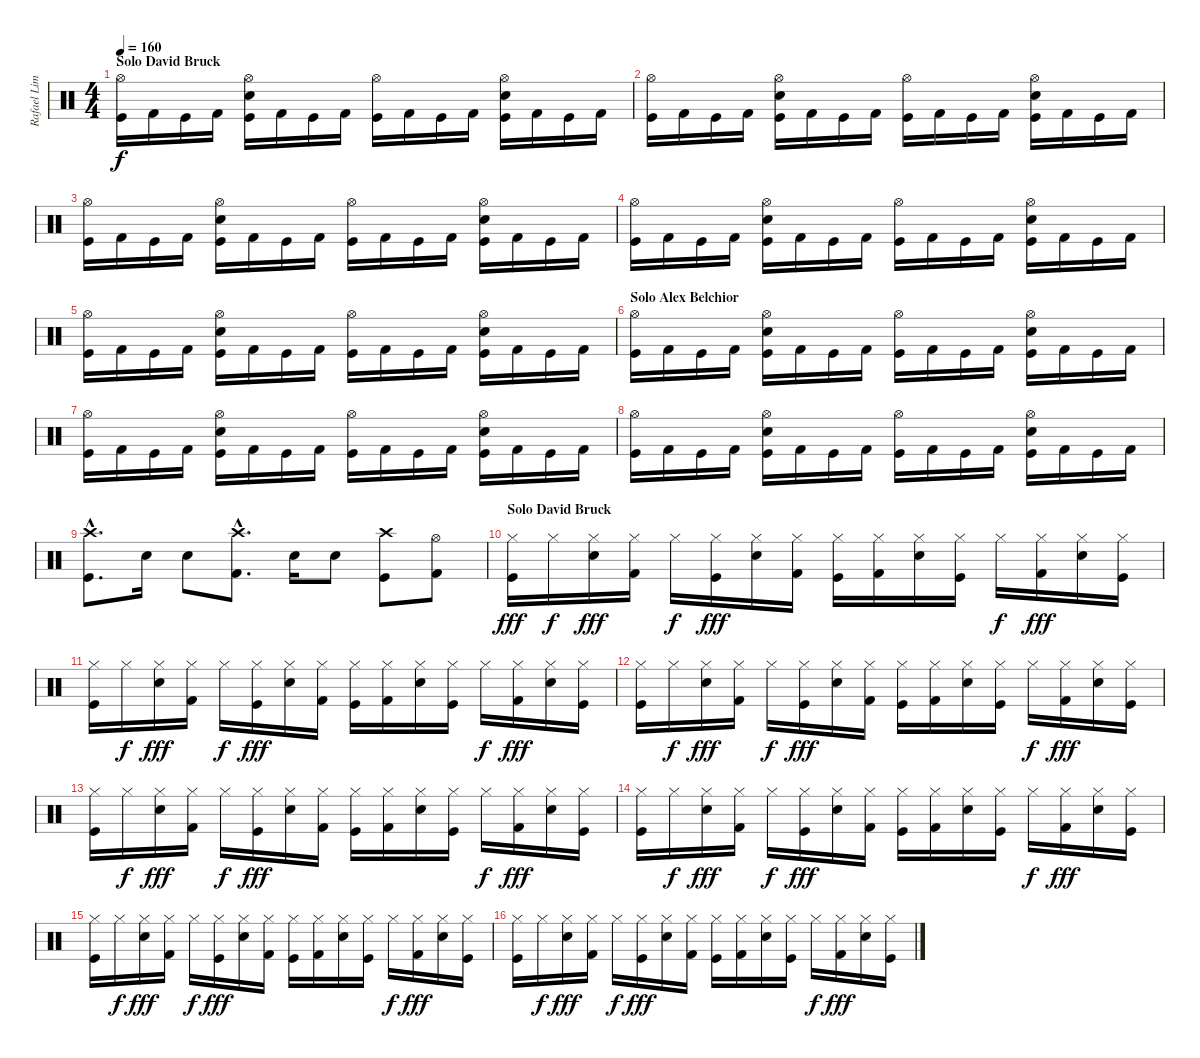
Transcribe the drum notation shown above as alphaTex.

\track ("Rafael Lima" "Rafael Lim") {instrument percussion}
\staff {score}
\articulation defaults
\ts (4 4)
\section ("" "Solo David Bruck")
\tempo 160
\clef neutral
\ks c
("Hi-Hat (open)" "Kick (hit)").16{dy f} "Kick (hit) 2".16 "Kick (hit)".16 "Kick (hit) 2".16 ("Hi-Hat (open)" "Electric Snare (hit)" "Kick (hit)").16 "Kick (hit) 2".16 "Kick (hit)".16 "Kick (hit) 2".16 ("Hi-Hat (open)" "Kick (hit)").16 "Kick (hit) 2".16 "Kick (hit)".16 "Kick (hit) 2".16 ("Hi-Hat (open)" "Electric Snare (hit)" "Kick (hit)").16 "Kick (hit) 2".16 "Kick (hit)".16 "Kick (hit) 2".16 |
("Hi-Hat (open)" "Kick (hit)").16 "Kick (hit) 2".16 "Kick (hit)".16 "Kick (hit) 2".16 ("Hi-Hat (open)" "Electric Snare (hit)" "Kick (hit)").16 "Kick (hit) 2".16 "Kick (hit)".16 "Kick (hit) 2".16 ("Hi-Hat (open)" "Kick (hit)").16 "Kick (hit) 2".16 "Kick (hit)".16 "Kick (hit) 2".16 ("Hi-Hat (open)" "Electric Snare (hit)" "Kick (hit)").16 "Kick (hit) 2".16 "Kick (hit)".16 "Kick (hit) 2".16 |
("Hi-Hat (open)" "Kick (hit)").16 "Kick (hit) 2".16 "Kick (hit)".16 "Kick (hit) 2".16 ("Hi-Hat (open)" "Electric Snare (hit)" "Kick (hit)").16 "Kick (hit) 2".16 "Kick (hit)".16 "Kick (hit) 2".16 ("Hi-Hat (open)" "Kick (hit)").16 "Kick (hit) 2".16 "Kick (hit)".16 "Kick (hit) 2".16 ("Hi-Hat (open)" "Electric Snare (hit)" "Kick (hit)").16 "Kick (hit) 2".16 "Kick (hit)".16 "Kick (hit) 2".16 |
("Hi-Hat (open)" "Kick (hit)").16 "Kick (hit) 2".16 "Kick (hit)".16 "Kick (hit) 2".16 ("Hi-Hat (open)" "Electric Snare (hit)" "Kick (hit)").16 "Kick (hit) 2".16 "Kick (hit)".16 "Kick (hit) 2".16 ("Hi-Hat (open)" "Kick (hit)").16 "Kick (hit) 2".16 "Kick (hit)".16 "Kick (hit) 2".16 ("Hi-Hat (open)" "Electric Snare (hit)" "Kick (hit)").16 "Kick (hit) 2".16 "Kick (hit)".16 "Kick (hit) 2".16 |
("Hi-Hat (open)" "Kick (hit)").16 "Kick (hit) 2".16 "Kick (hit)".16 "Kick (hit) 2".16 ("Hi-Hat (open)" "Electric Snare (hit)" "Kick (hit)").16 "Kick (hit) 2".16 "Kick (hit)".16 "Kick (hit) 2".16 ("Hi-Hat (open)" "Kick (hit)").16 "Kick (hit) 2".16 "Kick (hit)".16 "Kick (hit) 2".16 ("Hi-Hat (open)" "Electric Snare (hit)" "Kick (hit)").16 "Kick (hit) 2".16 "Kick (hit)".16 "Kick (hit) 2".16 |
\section ("" "Solo Alex Belchior")
("Hi-Hat (open)" "Kick (hit)").16 "Kick (hit) 2".16 "Kick (hit)".16 "Kick (hit) 2".16 ("Hi-Hat (open)" "Electric Snare (hit)" "Kick (hit)").16 "Kick (hit) 2".16 "Kick (hit)".16 "Kick (hit) 2".16 ("Hi-Hat (open)" "Kick (hit)").16 "Kick (hit) 2".16 "Kick (hit)".16 "Kick (hit) 2".16 ("Hi-Hat (open)" "Electric Snare (hit)" "Kick (hit)").16 "Kick (hit) 2".16 "Kick (hit)".16 "Kick (hit) 2".16 |
("Hi-Hat (open)" "Kick (hit)").16 "Kick (hit) 2".16 "Kick (hit)".16 "Kick (hit) 2".16 ("Hi-Hat (open)" "Electric Snare (hit)" "Kick (hit)").16 "Kick (hit) 2".16 "Kick (hit)".16 "Kick (hit) 2".16 ("Hi-Hat (open)" "Kick (hit)").16 "Kick (hit) 2".16 "Kick (hit)".16 "Kick (hit) 2".16 ("Hi-Hat (open)" "Electric Snare (hit)" "Kick (hit)").16 "Kick (hit) 2".16 "Kick (hit)".16 "Kick (hit) 2".16 |
("Hi-Hat (open)" "Kick (hit)").16 "Kick (hit) 2".16 "Kick (hit)".16 "Kick (hit) 2".16 ("Hi-Hat (open)" "Electric Snare (hit)" "Kick (hit)").16 "Kick (hit) 2".16 "Kick (hit)".16 "Kick (hit) 2".16 ("Hi-Hat (open)" "Kick (hit)").16 "Kick (hit) 2".16 "Kick (hit)".16 "Kick (hit) 2".16 ("Hi-Hat (open)" "Electric Snare (hit)" "Kick (hit)").16 "Kick (hit) 2".16 "Kick (hit)".16 "Kick (hit) 2".16 |
("Crash high (hit)"{hac} "Kick (hit)"{hac}).8{d} "Electric Snare (hit)".16 "Electric Snare (hit)".8 ("Crash high (hit)"{hac} "Kick (hit) 2"{hac}).8{d} "Electric Snare (hit)".16 "Electric Snare (hit)".8 ("Crash high (hit)" "Kick (hit)").8 ("Hi-Hat (open)" "Kick (hit) 2").8 |
\section ("" "Solo David Bruck")
("Hi-Hat (closed)" "Kick (hit)").16{dy fff} "Hi-Hat (closed)".16{dy f} ("Hi-Hat (closed)" "Electric Snare (hit)").16{dy fff} ("Hi-Hat (closed)" "Kick (hit) 2").16 "Hi-Hat (closed)".16{dy f} ("Hi-Hat (closed)" "Kick (hit)").16{dy fff} ("Hi-Hat (closed)" "Electric Snare (hit)").16 ("Hi-Hat (closed)" "Kick (hit) 2").16 ("Hi-Hat (closed)" "Kick (hit)").16 ("Hi-Hat (closed)" "Kick (hit) 2").16 ("Hi-Hat (closed)" "Electric Snare (hit)").16 ("Hi-Hat (closed)" "Kick (hit)").16 "Hi-Hat (closed)".16{dy f} ("Hi-Hat (closed)" "Kick (hit) 2").16{dy fff} ("Hi-Hat (closed)" "Electric Snare (hit)").16 ("Hi-Hat (closed)" "Kick (hit)").16 |
("Hi-Hat (closed)" "Kick (hit)").16 "Hi-Hat (closed)".16{dy f} ("Hi-Hat (closed)" "Electric Snare (hit)").16{dy fff} ("Hi-Hat (closed)" "Kick (hit) 2").16 "Hi-Hat (closed)".16{dy f} ("Hi-Hat (closed)" "Kick (hit)").16{dy fff} ("Hi-Hat (closed)" "Electric Snare (hit)").16 ("Hi-Hat (closed)" "Kick (hit) 2").16 ("Hi-Hat (closed)" "Kick (hit)").16 ("Hi-Hat (closed)" "Kick (hit) 2").16 ("Hi-Hat (closed)" "Electric Snare (hit)").16 ("Hi-Hat (closed)" "Kick (hit)").16 "Hi-Hat (closed)".16{dy f} ("Hi-Hat (closed)" "Kick (hit) 2").16{dy fff} ("Hi-Hat (closed)" "Electric Snare (hit)").16 ("Hi-Hat (closed)" "Kick (hit)").16 |
("Hi-Hat (closed)" "Kick (hit)").16 "Hi-Hat (closed)".16{dy f} ("Hi-Hat (closed)" "Electric Snare (hit)").16{dy fff} ("Hi-Hat (closed)" "Kick (hit) 2").16 "Hi-Hat (closed)".16{dy f} ("Hi-Hat (closed)" "Kick (hit)").16{dy fff} ("Hi-Hat (closed)" "Electric Snare (hit)").16 ("Hi-Hat (closed)" "Kick (hit) 2").16 ("Hi-Hat (closed)" "Kick (hit)").16 ("Hi-Hat (closed)" "Kick (hit) 2").16 ("Hi-Hat (closed)" "Electric Snare (hit)").16 ("Hi-Hat (closed)" "Kick (hit)").16 "Hi-Hat (closed)".16{dy f} ("Hi-Hat (closed)" "Kick (hit) 2").16{dy fff} ("Hi-Hat (closed)" "Electric Snare (hit)").16 ("Hi-Hat (closed)" "Kick (hit)").16 |
("Hi-Hat (closed)" "Kick (hit)").16 "Hi-Hat (closed)".16{dy f} ("Hi-Hat (closed)" "Electric Snare (hit)").16{dy fff} ("Hi-Hat (closed)" "Kick (hit) 2").16 "Hi-Hat (closed)".16{dy f} ("Hi-Hat (closed)" "Kick (hit)").16{dy fff} ("Hi-Hat (closed)" "Electric Snare (hit)").16 ("Hi-Hat (closed)" "Kick (hit) 2").16 ("Hi-Hat (closed)" "Kick (hit)").16 ("Hi-Hat (closed)" "Kick (hit) 2").16 ("Hi-Hat (closed)" "Electric Snare (hit)").16 ("Hi-Hat (closed)" "Kick (hit)").16 "Hi-Hat (closed)".16{dy f} ("Hi-Hat (closed)" "Kick (hit) 2").16{dy fff} ("Hi-Hat (closed)" "Electric Snare (hit)").16 ("Hi-Hat (closed)" "Kick (hit)").16 |
("Hi-Hat (closed)" "Kick (hit)").16 "Hi-Hat (closed)".16{dy f} ("Hi-Hat (closed)" "Electric Snare (hit)").16{dy fff} ("Hi-Hat (closed)" "Kick (hit) 2").16 "Hi-Hat (closed)".16{dy f} ("Hi-Hat (closed)" "Kick (hit)").16{dy fff} ("Hi-Hat (closed)" "Electric Snare (hit)").16 ("Hi-Hat (closed)" "Kick (hit) 2").16 ("Hi-Hat (closed)" "Kick (hit)").16 ("Hi-Hat (closed)" "Kick (hit) 2").16 ("Hi-Hat (closed)" "Electric Snare (hit)").16 ("Hi-Hat (closed)" "Kick (hit)").16 "Hi-Hat (closed)".16{dy f} ("Hi-Hat (closed)" "Kick (hit) 2").16{dy fff} ("Hi-Hat (closed)" "Electric Snare (hit)").16 ("Hi-Hat (closed)" "Kick (hit)").16 |
("Hi-Hat (closed)" "Kick (hit)").16 "Hi-Hat (closed)".16{dy f} ("Hi-Hat (closed)" "Electric Snare (hit)").16{dy fff} ("Hi-Hat (closed)" "Kick (hit) 2").16 "Hi-Hat (closed)".16{dy f} ("Hi-Hat (closed)" "Kick (hit)").16{dy fff} ("Hi-Hat (closed)" "Electric Snare (hit)").16 ("Hi-Hat (closed)" "Kick (hit) 2").16 ("Hi-Hat (closed)" "Kick (hit)").16 ("Hi-Hat (closed)" "Kick (hit) 2").16 ("Hi-Hat (closed)" "Electric Snare (hit)").16 ("Hi-Hat (closed)" "Kick (hit)").16 "Hi-Hat (closed)".16{dy f} ("Hi-Hat (closed)" "Kick (hit) 2").16{dy fff} ("Hi-Hat (closed)" "Electric Snare (hit)").16 ("Hi-Hat (closed)" "Kick (hit)").16 |
("Hi-Hat (closed)" "Kick (hit)").16 "Hi-Hat (closed)".16{dy f} ("Hi-Hat (closed)" "Electric Snare (hit)").16{dy fff} ("Hi-Hat (closed)" "Kick (hit) 2").16 "Hi-Hat (closed)".16{dy f} ("Hi-Hat (closed)" "Kick (hit)").16{dy fff} ("Hi-Hat (closed)" "Electric Snare (hit)").16 ("Hi-Hat (closed)" "Kick (hit) 2").16 ("Hi-Hat (closed)" "Kick (hit)").16 ("Hi-Hat (closed)" "Kick (hit) 2").16 ("Hi-Hat (closed)" "Electric Snare (hit)").16 ("Hi-Hat (closed)" "Kick (hit)").16 "Hi-Hat (closed)".16{dy f} ("Hi-Hat (closed)" "Kick (hit) 2").16{dy fff} ("Hi-Hat (closed)" "Electric Snare (hit)").16 ("Hi-Hat (closed)" "Kick (hit)").16
